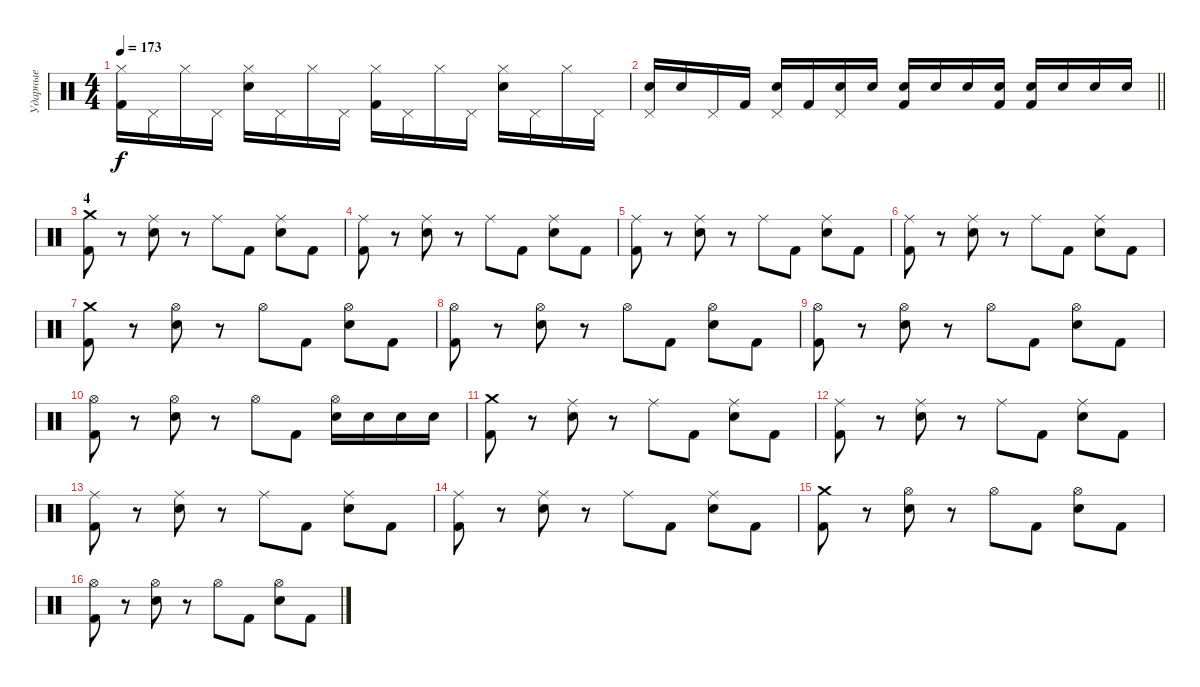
\track ("Ударные" "Ударные") {instrument percussion}
\staff {score}
\articulation defaults
\ts (4 4)
\tempo 173
\clef neutral
\ks c
("Hi-Hat (closed)" "Kick (hit) 2").16{dy f} "Pedal Hi-Hat (hit)".16 "Hi-Hat (closed)".16 "Pedal Hi-Hat (hit)".16 ("Hi-Hat (closed)" "Snare (hit) 2").16 "Pedal Hi-Hat (hit)".16 "Hi-Hat (closed)".16 "Pedal Hi-Hat (hit)".16 ("Hi-Hat (closed)" "Kick (hit) 2").16 "Pedal Hi-Hat (hit)".16 "Hi-Hat (closed)".16 "Pedal Hi-Hat (hit)".16 ("Hi-Hat (closed)" "Snare (hit) 2").16 "Pedal Hi-Hat (hit)".16 "Hi-Hat (closed)".16 "Pedal Hi-Hat (hit)".16 |
\barLineRight lightlight
("Pedal Hi-Hat (hit)" "Snare (hit) 2").16 "Snare (hit) 2".16 "Pedal Hi-Hat (hit)".16 "Kick (hit) 2".16 ("Pedal Hi-Hat (hit)" "Snare (hit) 2").16 "Kick (hit) 2".16 ("Pedal Hi-Hat (hit)" "Snare (hit) 2").16 "Snare (hit) 2".16 ("Snare (hit) 2" "Kick (hit) 2").16 "Snare (hit) 2".16 "Snare (hit) 2".16 ("Snare (hit) 2" "Kick (hit) 2").16 ("Snare (hit) 2" "Kick (hit) 2").16 "Snare (hit) 2".16 "Snare (hit) 2".16 "Snare (hit) 2".16 |
\section ("" "4")
("Crash medium (hit)" "Kick (hit) 2").8 r.8 ("Ride (middle)" "Snare (hit) 2").8 r.8 "Ride (middle)".8 "Kick (hit) 2".8 ("Ride (middle)" "Snare (hit) 2").8 "Kick (hit) 2".8 |
("Ride (middle)" "Kick (hit) 2").8 r.8 ("Ride (middle)" "Snare (hit) 2").8 r.8 "Ride (middle)".8 "Kick (hit) 2".8 ("Ride (middle)" "Snare (hit) 2").8 "Kick (hit) 2".8 |
("Ride (middle)" "Kick (hit) 2").8 r.8 ("Ride (middle)" "Snare (hit) 2").8 r.8 "Ride (middle)".8 "Kick (hit) 2".8 ("Ride (middle)" "Snare (hit) 2").8 "Kick (hit) 2".8 |
("Ride (middle)" "Kick (hit) 2").8 r.8 ("Ride (middle)" "Snare (hit) 2").8 r.8 "Ride (middle)".8 "Kick (hit) 2".8 ("Ride (middle)" "Snare (hit) 2").8 "Kick (hit) 2".8 |
("Crash medium (hit)" "Kick (hit) 2").8 r.8 ("Hi-Hat (open)" "Snare (hit) 2").8 r.8 "Hi-Hat (open)".8 "Kick (hit) 2".8 ("Hi-Hat (open)" "Snare (hit) 2").8 "Kick (hit) 2".8 |
("Hi-Hat (open)" "Kick (hit) 2").8 r.8 ("Hi-Hat (open)" "Snare (hit) 2").8 r.8 "Hi-Hat (open)".8 "Kick (hit) 2".8 ("Hi-Hat (open)" "Snare (hit) 2").8 "Kick (hit) 2".8 |
("Hi-Hat (open)" "Kick (hit) 2").8 r.8 ("Hi-Hat (open)" "Snare (hit) 2").8 r.8 "Hi-Hat (open)".8 "Kick (hit) 2".8 ("Hi-Hat (open)" "Snare (hit) 2").8 "Kick (hit) 2".8 |
("Hi-Hat (open)" "Kick (hit) 2").8 r.8 ("Hi-Hat (open)" "Snare (hit) 2").8 r.8 "Hi-Hat (open)".8 "Kick (hit) 2".8 ("Hi-Hat (open)" "Snare (hit) 2").16 "Snare (hit) 2".16 "Snare (hit) 2".16 "Snare (hit) 2".16 |
("Crash medium (hit)" "Kick (hit) 2").8 r.8 ("Ride (middle)" "Snare (hit) 2").8 r.8 "Ride (middle)".8 "Kick (hit) 2".8 ("Ride (middle)" "Snare (hit) 2").8 "Kick (hit) 2".8 |
("Ride (middle)" "Kick (hit) 2").8 r.8 ("Ride (middle)" "Snare (hit) 2").8 r.8 "Ride (middle)".8 "Kick (hit) 2".8 ("Ride (middle)" "Snare (hit) 2").8 "Kick (hit) 2".8 |
("Ride (middle)" "Kick (hit) 2").8 r.8 ("Ride (middle)" "Snare (hit) 2").8 r.8 "Ride (middle)".8 "Kick (hit) 2".8 ("Ride (middle)" "Snare (hit) 2").8 "Kick (hit) 2".8 |
("Ride (middle)" "Kick (hit) 2").8 r.8 ("Ride (middle)" "Snare (hit) 2").8 r.8 "Ride (middle)".8 "Kick (hit) 2".8 ("Ride (middle)" "Snare (hit) 2").8 "Kick (hit) 2".8 |
("Crash medium (hit)" "Kick (hit) 2").8 r.8 ("Hi-Hat (open)" "Snare (hit) 2").8 r.8 "Hi-Hat (open)".8 "Kick (hit) 2".8 ("Hi-Hat (open)" "Snare (hit) 2").8 "Kick (hit) 2".8 |
("Hi-Hat (open)" "Kick (hit) 2").8 r.8 ("Hi-Hat (open)" "Snare (hit) 2").8 r.8 "Hi-Hat (open)".8 "Kick (hit) 2".8 ("Hi-Hat (open)" "Snare (hit) 2").8 "Kick (hit) 2".8
